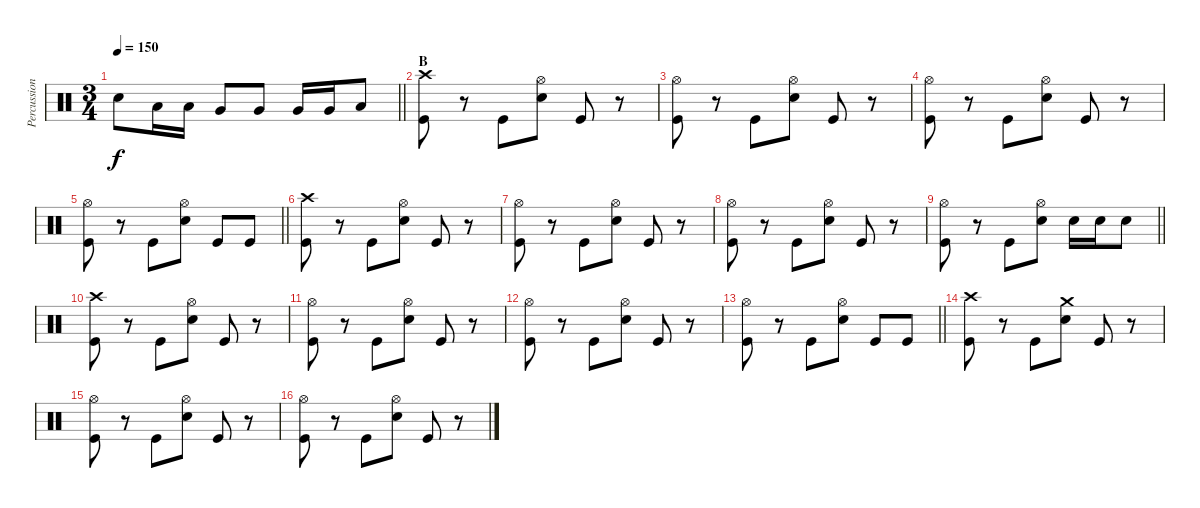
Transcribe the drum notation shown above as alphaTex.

\track ("Percussion" "Percussion") {instrument percussion}
\staff {score}
\articulation defaults
\ts (3 4)
\tempo 150
\clef neutral
\barLineRight lightlight
\ks c "Snare (hit) 2".8{dy f} "Low Tom (hit)".16 "Low Tom (hit)".16 "Very Low Tom (hit)".8 "Very Low Tom (hit)".8 "Very Low Tom (hit)".16 "Very Low Tom (hit)".16 "Low Floor Tom (hit)".8
|
\section ("" "B")
("Crash high (hit)" "Kick (hit)").8 r.8 "Kick (hit)".8 ("Hi-Hat (open)" "Snare (hit) 2").8 "Kick (hit)".8 r.8 |
("Hi-Hat (open)" "Kick (hit)").8 r.8 "Kick (hit)".8 ("Hi-Hat (open)" "Snare (hit) 2").8 "Kick (hit)".8 r.8 |
("Hi-Hat (open)" "Kick (hit)").8 r.8 "Kick (hit)".8 ("Hi-Hat (open)" "Snare (hit) 2").8 "Kick (hit)".8 r.8 |
\barLineRight lightlight
("Hi-Hat (open)" "Kick (hit)").8 r.8 "Kick (hit)".8 ("Hi-Hat (open)" "Snare (hit) 2").8 "Kick (hit)".8 "Kick (hit)".8 |
("Crash high (hit)" "Kick (hit)").8 r.8 "Kick (hit)".8 ("Hi-Hat (open)" "Snare (hit) 2").8 "Kick (hit)".8 r.8 |
("Hi-Hat (open)" "Kick (hit)").8 r.8 "Kick (hit)".8 ("Hi-Hat (open)" "Snare (hit) 2").8 "Kick (hit)".8 r.8 |
("Hi-Hat (open)" "Kick (hit)").8 r.8 "Kick (hit)".8 ("Hi-Hat (open)" "Snare (hit) 2").8 "Kick (hit)".8 r.8 |
\barLineRight lightlight
("Hi-Hat (open)" "Kick (hit)").8 r.8 "Kick (hit)".8 ("Hi-Hat (open)" "Snare (hit) 2").8 "Snare (hit) 2".16 "Snare (hit) 2".16 "Snare (hit) 2".8 |
("Crash high (hit)" "Kick (hit)").8 r.8 "Kick (hit)".8 ("Hi-Hat (open)" "Snare (hit) 2").8 "Kick (hit)".8 r.8 |
("Hi-Hat (open)" "Kick (hit)").8 r.8 "Kick (hit)".8 ("Hi-Hat (open)" "Snare (hit) 2").8 "Kick (hit)".8 r.8 |
("Hi-Hat (open)" "Kick (hit)").8 r.8 "Kick (hit)".8 ("Hi-Hat (open)" "Snare (hit) 2").8 "Kick (hit)".8 r.8 |
\barLineRight lightlight
("Hi-Hat (open)" "Kick (hit)").8 r.8 "Kick (hit)".8 ("Hi-Hat (open)" "Snare (hit) 2").8 "Kick (hit)".8 "Kick (hit)".8 |
("Crash high (hit)" "Kick (hit)").8 r.8 "Kick (hit)".8 ("Crash medium (hit)" "Snare (hit) 2").8 "Kick (hit)".8 r.8 |
("Hi-Hat (open)" "Kick (hit)").8 r.8 "Kick (hit)".8 ("Hi-Hat (open)" "Snare (hit) 2").8 "Kick (hit)".8 r.8 |
("Hi-Hat (open)" "Kick (hit)").8 r.8 "Kick (hit)".8 ("Hi-Hat (open)" "Snare (hit) 2").8 "Kick (hit)".8 r.8
